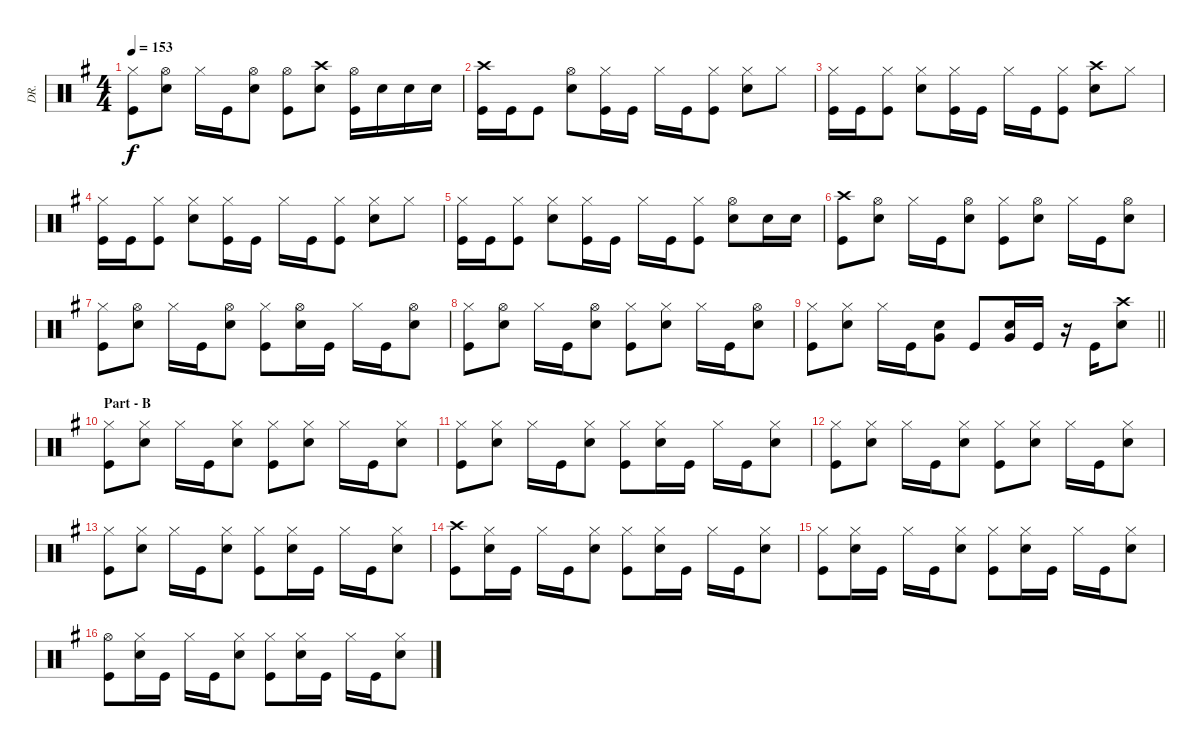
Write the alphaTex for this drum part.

\track ("DR." "DR.") {instrument percussion}
\staff {score}
\articulation defaults
\ts (4 4)
\tempo 153
\clef neutral
\ks g
("Hi-Hat (closed)" "Kick (hit)").8{dy f} ("Hi-Hat (open)" "Snare (hit) 2").8 "Hi-Hat (closed)".16 "Kick (hit)".16 ("Hi-Hat (open)" "Snare (hit) 2").8 ("Hi-Hat (open)" "Kick (hit)").8 ("Crash high (hit)" "Snare (hit) 2").8 ("Hi-Hat (open)" "Kick (hit)").16 "Snare (hit) 2".16 "Snare (hit) 2".16 "Snare (hit) 2".16 |
("Crash high (hit)" "Kick (hit)").16 "Kick (hit)".16 "Kick (hit)".8 ("Hi-Hat (open)" "Snare (hit) 2").8 ("Hi-Hat (closed)" "Kick (hit)").16 "Kick (hit)".16 "Hi-Hat (closed)".16 "Kick (hit)".16 ("Hi-Hat (closed)" "Kick (hit)").8 ("Hi-Hat (closed)" "Snare (hit) 2").8 "Hi-Hat (closed)".8 |
("Hi-Hat (closed)" "Kick (hit)").16 "Kick (hit)".16 ("Hi-Hat (closed)" "Kick (hit)").8 ("Hi-Hat (closed)" "Snare (hit) 2").8 ("Hi-Hat (closed)" "Kick (hit)").16 "Kick (hit)".16 "Hi-Hat (closed)".16 "Kick (hit)".16 ("Hi-Hat (closed)" "Kick (hit)").8 ("Crash high (hit)" "Snare (hit) 2").8 "Hi-Hat (closed)".8 |
("Hi-Hat (closed)" "Kick (hit)").16 "Kick (hit)".16 ("Hi-Hat (closed)" "Kick (hit)").8 ("Hi-Hat (closed)" "Snare (hit) 2").8 ("Hi-Hat (closed)" "Kick (hit)").16 "Kick (hit)".16 "Hi-Hat (closed)".16 "Kick (hit)".16 ("Hi-Hat (closed)" "Kick (hit)").8 ("Hi-Hat (closed)" "Snare (hit) 2").8 "Hi-Hat (closed)".8 |
("Hi-Hat (closed)" "Kick (hit)").16 "Kick (hit)".16 ("Hi-Hat (closed)" "Kick (hit)").8 ("Hi-Hat (closed)" "Snare (hit) 2").8 ("Hi-Hat (closed)" "Kick (hit)").16 "Kick (hit)".16 "Hi-Hat (closed)".16 "Kick (hit)".16 ("Hi-Hat (closed)" "Kick (hit)").8 ("Hi-Hat (open)" "Snare (hit) 2").8 "Snare (hit) 2".16 "Snare (hit) 2".16 |
("Crash high (hit)" "Kick (hit)").8 ("Hi-Hat (open)" "Snare (hit) 2").8 "Hi-Hat (closed)".16 "Kick (hit)".16 ("Hi-Hat (open)" "Snare (hit) 2").8 ("Hi-Hat (closed)" "Kick (hit)").8 ("Hi-Hat (open)" "Snare (hit) 2").8 "Hi-Hat (closed)".16 "Kick (hit)".16 ("Hi-Hat (open)" "Snare (hit) 2").8 |
("Hi-Hat (closed)" "Kick (hit)").8 ("Hi-Hat (open)" "Snare (hit) 2").8 "Hi-Hat (closed)".16 "Kick (hit)".16 ("Hi-Hat (open)" "Snare (hit) 2").8 ("Hi-Hat (closed)" "Kick (hit)").8 ("Hi-Hat (open)" "Snare (hit) 2").16 "Kick (hit)".16 "Hi-Hat (closed)".16 "Kick (hit)".16 ("Hi-Hat (open)" "Snare (hit) 2").8 |
("Hi-Hat (closed)" "Kick (hit)").8 ("Hi-Hat (open)" "Snare (hit) 2").8 "Hi-Hat (closed)".16 "Kick (hit)".16 ("Hi-Hat (open)" "Snare (hit) 2").8 ("Hi-Hat (closed)" "Kick (hit)").8 ("Hi-Hat (closed)" "Snare (hit) 2").8 "Hi-Hat (closed)".16 "Kick (hit)".16 ("Hi-Hat (open)" "Snare (hit) 2").8 |
\barLineRight lightlight
("Hi-Hat (closed)" "Kick (hit)").8 ("Hi-Hat (closed)" "Snare (hit) 2").8 "Hi-Hat (closed)".16 "Kick (hit)".16 ("Snare (hit) 2" "Very Low Tom (hit)").8 "Kick (hit)".8 ("Snare (hit) 2" "Very Low Tom (hit)").16 "Kick (hit)".16 r.16 "Kick (hit)".16 ("Crash high (hit)" "Snare (hit) 2").8 |
\section ("" "Part - B")
("Hi-Hat (closed)" "Kick (hit)").8 ("Hi-Hat (closed)" "Snare (hit) 2").8 "Hi-Hat (closed)".16 "Kick (hit)".16 ("Hi-Hat (closed)" "Snare (hit) 2").8 ("Hi-Hat (closed)" "Kick (hit)").8 ("Hi-Hat (closed)" "Snare (hit) 2").8 "Hi-Hat (closed)".16 "Kick (hit)".16 ("Hi-Hat (closed)" "Snare (hit) 2").8 |
("Hi-Hat (closed)" "Kick (hit)").8 ("Hi-Hat (closed)" "Snare (hit) 2").8 "Hi-Hat (closed)".16 "Kick (hit)".16 ("Hi-Hat (closed)" "Snare (hit) 2").8 ("Hi-Hat (closed)" "Kick (hit)").8 ("Hi-Hat (closed)" "Snare (hit) 2").16 "Kick (hit)".16 "Hi-Hat (closed)".16 "Kick (hit)".16 ("Hi-Hat (closed)" "Snare (hit) 2").8 |
("Hi-Hat (closed)" "Kick (hit)").8 ("Hi-Hat (closed)" "Snare (hit) 2").8 "Hi-Hat (closed)".16 "Kick (hit)".16 ("Hi-Hat (closed)" "Snare (hit) 2").8 ("Hi-Hat (closed)" "Kick (hit)").8 ("Hi-Hat (closed)" "Snare (hit) 2").8 "Hi-Hat (closed)".16 "Kick (hit)".16 ("Hi-Hat (closed)" "Snare (hit) 2").8 |
("Hi-Hat (closed)" "Kick (hit)").8 ("Hi-Hat (closed)" "Snare (hit) 2").8 "Hi-Hat (closed)".16 "Kick (hit)".16 ("Hi-Hat (closed)" "Snare (hit) 2").8 ("Hi-Hat (closed)" "Kick (hit)").8 ("Hi-Hat (closed)" "Snare (hit) 2").16 "Kick (hit)".16 "Hi-Hat (closed)".16 "Kick (hit)".16 ("Hi-Hat (closed)" "Snare (hit) 2").8 |
("Crash high (hit)" "Kick (hit)").8 ("Hi-Hat (closed)" "Snare (hit) 2").16 "Kick (hit)".16 "Hi-Hat (closed)".16 "Kick (hit)".16 ("Hi-Hat (closed)" "Snare (hit) 2").8 ("Hi-Hat (closed)" "Kick (hit)").8 ("Hi-Hat (closed)" "Snare (hit) 2").16 "Kick (hit)".16 "Hi-Hat (closed)".16 "Kick (hit)".16 ("Hi-Hat (closed)" "Snare (hit) 2").8 |
("Hi-Hat (closed)" "Kick (hit)").8 ("Hi-Hat (closed)" "Snare (hit) 2").16 "Kick (hit)".16 "Hi-Hat (closed)".16 "Kick (hit)".16 ("Hi-Hat (closed)" "Snare (hit) 2").8 ("Hi-Hat (closed)" "Kick (hit)").8 ("Hi-Hat (closed)" "Snare (hit) 2").16 "Kick (hit)".16 "Hi-Hat (closed)".16 "Kick (hit)".16 ("Hi-Hat (closed)" "Snare (hit) 2").8 |
("Hi-Hat (open)" "Kick (hit)").8 ("Hi-Hat (closed)" "Snare (hit) 2").16 "Kick (hit)".16 "Hi-Hat (closed)".16 "Kick (hit)".16 ("Hi-Hat (closed)" "Snare (hit) 2").8 ("Hi-Hat (closed)" "Kick (hit)").8 ("Hi-Hat (closed)" "Snare (hit) 2").16 "Kick (hit)".16 "Hi-Hat (closed)".16 "Kick (hit)".16 ("Hi-Hat (closed)" "Snare (hit) 2").8
